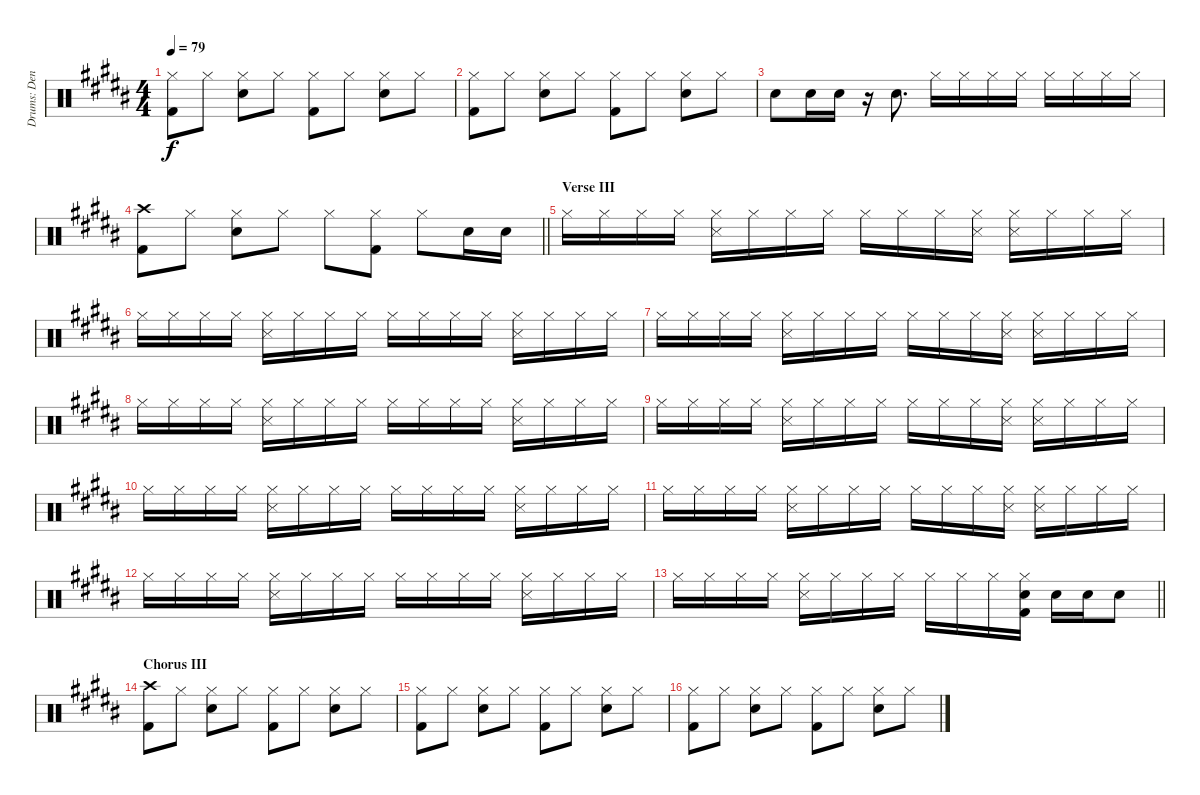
\track ("Drums: Denny" "Drums: Den") {instrument percussion}
\staff {score}
\articulation defaults
\ts (4 4)
\tempo 79
\clef neutral
\ks b
("Hi-Hat (closed)" "Kick (hit) 2").8{dy f} "Hi-Hat (closed)".8 ("Hi-Hat (closed)" "Snare (hit) 2").8 "Hi-Hat (closed)".8 ("Hi-Hat (closed)" "Kick (hit) 2").8 "Hi-Hat (closed)".8 ("Hi-Hat (closed)" "Snare (hit) 2").8 "Hi-Hat (closed)".8 |
("Hi-Hat (closed)" "Kick (hit) 2").8 "Hi-Hat (closed)".8 ("Hi-Hat (closed)" "Snare (hit) 2").8 "Hi-Hat (closed)".8 ("Hi-Hat (closed)" "Kick (hit) 2").8 "Hi-Hat (closed)".8 ("Hi-Hat (closed)" "Snare (hit) 2").8 "Hi-Hat (closed)".8 |
"Electric Snare (hit)".8 "Electric Snare (hit)".16 "Electric Snare (hit)".16 r.16 "Electric Snare (hit)".8{d} "Hi-Hat (closed)".16 "Hi-Hat (closed)".16 "Hi-Hat (closed)".16 "Hi-Hat (closed)".16 "Hi-Hat (closed)".16 "Hi-Hat (closed)".16 "Hi-Hat (closed)".16 "Hi-Hat (closed)".16 |
\barLineRight lightlight
("Crash high (hit)" "Kick (hit) 2").8 "Hi-Hat (closed)".8 ("Hi-Hat (closed)" "Snare (hit) 2").8 "Hi-Hat (closed)".8 "Hi-Hat (closed)".8 ("Hi-Hat (closed)" "Kick (hit) 2").8 "Hi-Hat (closed)".8 "Snare (hit) 2".16 "Snare (hit) 2".16 |
\section ("" "Verse III")
"Hi-Hat (closed)".16 "Hi-Hat (closed)".16 "Hi-Hat (closed)".16 "Hi-Hat (closed)".16 ("Hi-Hat (closed)" "Snare (side stick) 3").16 "Hi-Hat (closed)".16 "Hi-Hat (closed)".16 "Hi-Hat (closed)".16 "Hi-Hat (closed)".16 "Hi-Hat (closed)".16 "Hi-Hat (closed)".16 ("Hi-Hat (closed)" "Snare (side stick) 3").16 ("Hi-Hat (closed)" "Snare (side stick) 3").16 "Hi-Hat (closed)".16 "Hi-Hat (closed)".16 "Hi-Hat (closed)".16 |
"Hi-Hat (closed)".16 "Hi-Hat (closed)".16 "Hi-Hat (closed)".16 "Hi-Hat (closed)".16 ("Hi-Hat (closed)" "Snare (side stick) 3").16 "Hi-Hat (closed)".16 "Hi-Hat (closed)".16 "Hi-Hat (closed)".16 "Hi-Hat (closed)".16 "Hi-Hat (closed)".16 "Hi-Hat (closed)".16 "Hi-Hat (closed)".16 ("Hi-Hat (closed)" "Snare (side stick) 3").16 "Hi-Hat (closed)".16 "Hi-Hat (closed)".16 "Hi-Hat (closed)".16 |
"Hi-Hat (closed)".16 "Hi-Hat (closed)".16 "Hi-Hat (closed)".16 "Hi-Hat (closed)".16 ("Hi-Hat (closed)" "Snare (side stick) 3").16 "Hi-Hat (closed)".16 "Hi-Hat (closed)".16 "Hi-Hat (closed)".16 "Hi-Hat (closed)".16 "Hi-Hat (closed)".16 "Hi-Hat (closed)".16 ("Hi-Hat (closed)" "Snare (side stick) 3").16 ("Hi-Hat (closed)" "Snare (side stick) 3").16 "Hi-Hat (closed)".16 "Hi-Hat (closed)".16 "Hi-Hat (closed)".16 |
"Hi-Hat (closed)".16 "Hi-Hat (closed)".16 "Hi-Hat (closed)".16 "Hi-Hat (closed)".16 ("Hi-Hat (closed)" "Snare (side stick) 3").16 "Hi-Hat (closed)".16 "Hi-Hat (closed)".16 "Hi-Hat (closed)".16 "Hi-Hat (closed)".16 "Hi-Hat (closed)".16 "Hi-Hat (closed)".16 "Hi-Hat (closed)".16 ("Hi-Hat (closed)" "Snare (side stick) 3").16 "Hi-Hat (closed)".16 "Hi-Hat (closed)".16 "Hi-Hat (closed)".16 |
"Hi-Hat (closed)".16 "Hi-Hat (closed)".16 "Hi-Hat (closed)".16 "Hi-Hat (closed)".16 ("Hi-Hat (closed)" "Snare (side stick) 3").16 "Hi-Hat (closed)".16 "Hi-Hat (closed)".16 "Hi-Hat (closed)".16 "Hi-Hat (closed)".16 "Hi-Hat (closed)".16 "Hi-Hat (closed)".16 ("Hi-Hat (closed)" "Snare (side stick) 3").16 ("Hi-Hat (closed)" "Snare (side stick) 3").16 "Hi-Hat (closed)".16 "Hi-Hat (closed)".16 "Hi-Hat (closed)".16 |
"Hi-Hat (closed)".16 "Hi-Hat (closed)".16 "Hi-Hat (closed)".16 "Hi-Hat (closed)".16 ("Hi-Hat (closed)" "Snare (side stick) 3").16 "Hi-Hat (closed)".16 "Hi-Hat (closed)".16 "Hi-Hat (closed)".16 "Hi-Hat (closed)".16 "Hi-Hat (closed)".16 "Hi-Hat (closed)".16 "Hi-Hat (closed)".16 ("Hi-Hat (closed)" "Snare (side stick) 3").16 "Hi-Hat (closed)".16 "Hi-Hat (closed)".16 "Hi-Hat (closed)".16 |
"Hi-Hat (closed)".16 "Hi-Hat (closed)".16 "Hi-Hat (closed)".16 "Hi-Hat (closed)".16 ("Hi-Hat (closed)" "Snare (side stick) 3").16 "Hi-Hat (closed)".16 "Hi-Hat (closed)".16 "Hi-Hat (closed)".16 "Hi-Hat (closed)".16 "Hi-Hat (closed)".16 "Hi-Hat (closed)".16 ("Hi-Hat (closed)" "Snare (side stick) 3").16 ("Hi-Hat (closed)" "Snare (side stick) 3").16 "Hi-Hat (closed)".16 "Hi-Hat (closed)".16 "Hi-Hat (closed)".16 |
"Hi-Hat (closed)".16 "Hi-Hat (closed)".16 "Hi-Hat (closed)".16 "Hi-Hat (closed)".16 ("Hi-Hat (closed)" "Snare (side stick) 3").16 "Hi-Hat (closed)".16 "Hi-Hat (closed)".16 "Hi-Hat (closed)".16 "Hi-Hat (closed)".16 "Hi-Hat (closed)".16 "Hi-Hat (closed)".16 "Hi-Hat (closed)".16 ("Hi-Hat (closed)" "Snare (side stick) 3").16 "Hi-Hat (closed)".16 "Hi-Hat (closed)".16 "Hi-Hat (closed)".16 |
\barLineRight lightlight "Hi-Hat (closed)".16 "Hi-Hat (closed)".16 "Hi-Hat (closed)".16 "Hi-Hat (closed)".16
("Hi-Hat (closed)" "Snare (side stick) 3").16 "Hi-Hat (closed)".16 "Hi-Hat (closed)".16 "Hi-Hat (closed)".16 "Hi-Hat (closed)".16 "Hi-Hat (closed)".16 "Hi-Hat (closed)".16 ("Hi-Hat (closed)" "Electric Snare (hit)" "Kick (hit) 2").16 "Electric Snare (hit)".16 "Electric Snare (hit)".16 "Electric Snare (hit)".8 |
\section ("" "Chorus III")
("Crash high (hit)" "Kick (hit) 2").8 "Hi-Hat (closed)".8 ("Hi-Hat (closed)" "Snare (hit) 2").8 "Hi-Hat (closed)".8 ("Hi-Hat (closed)" "Kick (hit) 2").8 "Hi-Hat (closed)".8 ("Hi-Hat (closed)" "Snare (hit) 2").8 "Hi-Hat (closed)".8 |
("Hi-Hat (closed)" "Kick (hit) 2").8 "Hi-Hat (closed)".8 ("Hi-Hat (closed)" "Snare (hit) 2").8 "Hi-Hat (closed)".8 ("Hi-Hat (closed)" "Kick (hit) 2").8 "Hi-Hat (closed)".8 ("Hi-Hat (closed)" "Snare (hit) 2").8 "Hi-Hat (closed)".8 |
("Hi-Hat (closed)" "Kick (hit) 2").8 "Hi-Hat (closed)".8 ("Hi-Hat (closed)" "Snare (hit) 2").8 "Hi-Hat (closed)".8 ("Hi-Hat (closed)" "Kick (hit) 2").8 "Hi-Hat (closed)".8 ("Hi-Hat (closed)" "Snare (hit) 2").8 "Hi-Hat (closed)".8
